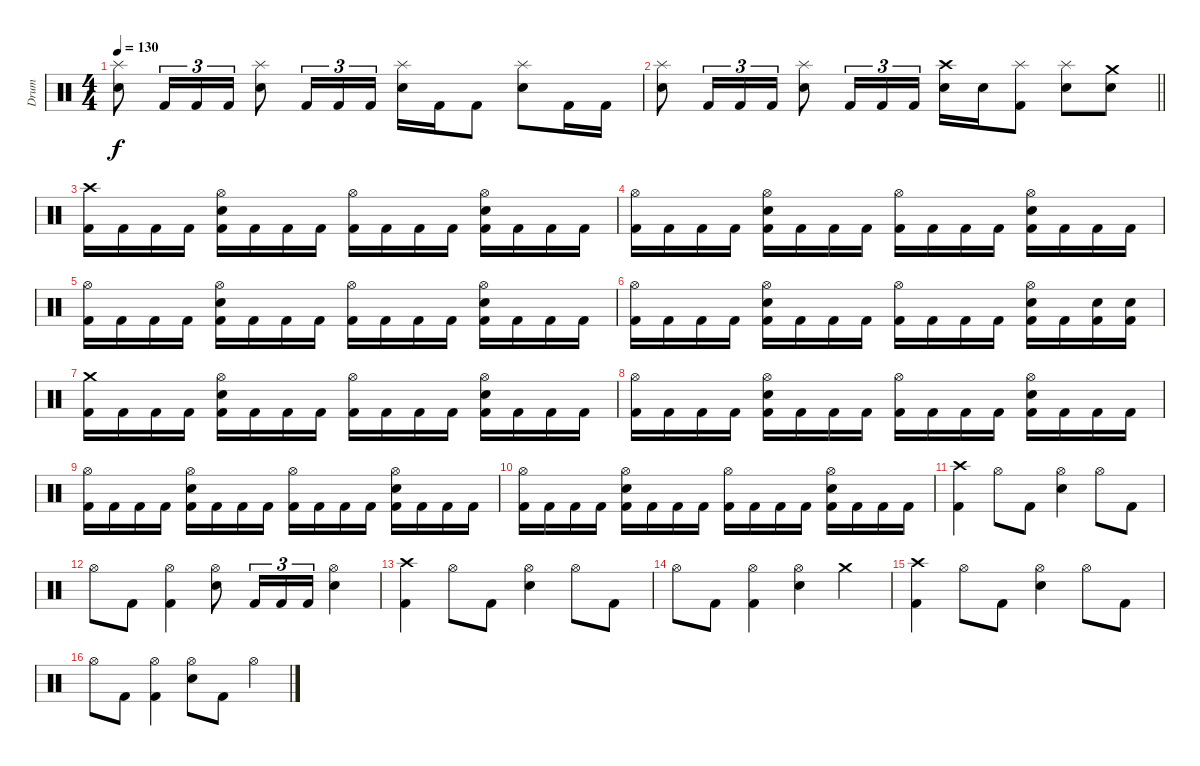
\track ("Drum" "Drum") {instrument percussion}
\staff {score}
\articulation defaults
\ts (4 4)
\tempo 130
\clef neutral
\ks c
("Electric Snare (hit)" "Splash (hit)").8{dy f} "Kick (hit) 2".16{tu (3 2)} "Kick (hit) 2".16{tu (3 2)} "Kick (hit) 2".16{tu (3 2)} ("Electric Snare (hit)" "Splash (hit)").8 "Kick (hit) 2".16{tu (3 2)} "Kick (hit) 2".16{tu (3 2)} "Kick (hit) 2".16{tu (3 2)} ("Electric Snare (hit)" "Splash (hit)").16 "Kick (hit) 2".16 "Kick (hit) 2".8 ("Electric Snare (hit)" "Splash (hit)").8 "Kick (hit) 2".16 "Kick (hit) 2".16 |
\barLineRight lightlight
("Electric Snare (hit)" "Splash (hit)").8 "Kick (hit) 2".16{tu (3 2)} "Kick (hit) 2".16{tu (3 2)} "Kick (hit) 2".16{tu (3 2)} ("Electric Snare (hit)" "Splash (hit)").8 "Kick (hit) 2".16{tu (3 2)} "Kick (hit) 2".16{tu (3 2)} "Kick (hit) 2".16{tu (3 2)} ("Electric Snare (hit)" "Crash high (hit)").16 "Electric Snare (hit)".16 ("Kick (hit) 2" "Splash (hit)").8 ("Electric Snare (hit)" "Splash (hit)").8 ("Electric Snare (hit)" "Crash medium (hit)").8 |
("Kick (hit) 2" "Crash high (hit)").16 "Kick (hit) 2".16 "Kick (hit) 2".16 "Kick (hit) 2".16 ("Kick (hit) 2" "Electric Snare (hit)" "Hi-Hat (open)").16 "Kick (hit) 2".16 "Kick (hit) 2".16 "Kick (hit) 2".16 ("Kick (hit) 2" "Hi-Hat (open)").16 "Kick (hit) 2".16 "Kick (hit) 2".16 "Kick (hit) 2".16 ("Kick (hit) 2" "Electric Snare (hit)" "Hi-Hat (open)").16 "Kick (hit) 2".16 "Kick (hit) 2".16 "Kick (hit) 2".16 |
("Kick (hit) 2" "Hi-Hat (open)").16 "Kick (hit) 2".16 "Kick (hit) 2".16 "Kick (hit) 2".16 ("Kick (hit) 2" "Electric Snare (hit)" "Hi-Hat (open)").16 "Kick (hit) 2".16 "Kick (hit) 2".16 "Kick (hit) 2".16 ("Kick (hit) 2" "Hi-Hat (open)").16 "Kick (hit) 2".16 "Kick (hit) 2".16 "Kick (hit) 2".16 ("Kick (hit) 2" "Electric Snare (hit)" "Hi-Hat (open)").16 "Kick (hit) 2".16 "Kick (hit) 2".16 "Kick (hit) 2".16 |
("Kick (hit) 2" "Hi-Hat (open)").16 "Kick (hit) 2".16 "Kick (hit) 2".16 "Kick (hit) 2".16 ("Kick (hit) 2" "Electric Snare (hit)" "Hi-Hat (open)").16 "Kick (hit) 2".16 "Kick (hit) 2".16 "Kick (hit) 2".16 ("Kick (hit) 2" "Hi-Hat (open)").16 "Kick (hit) 2".16 "Kick (hit) 2".16 "Kick (hit) 2".16 ("Kick (hit) 2" "Electric Snare (hit)" "Hi-Hat (open)").16 "Kick (hit) 2".16 "Kick (hit) 2".16 "Kick (hit) 2".16 |
("Kick (hit) 2" "Hi-Hat (open)").16 "Kick (hit) 2".16 "Kick (hit) 2".16 "Kick (hit) 2".16 ("Kick (hit) 2" "Electric Snare (hit)" "Hi-Hat (open)").16 "Kick (hit) 2".16 "Kick (hit) 2".16 "Kick (hit) 2".16 ("Kick (hit) 2" "Hi-Hat (open)").16 "Kick (hit) 2".16 "Kick (hit) 2".16 "Kick (hit) 2".16 ("Kick (hit) 2" "Electric Snare (hit)" "Hi-Hat (open)").16 "Kick (hit) 2".16 ("Kick (hit) 2" "Electric Snare (hit)").16 ("Kick (hit) 2" "Electric Snare (hit)").16 |
("Kick (hit) 2" "Crash medium (hit)").16 "Kick (hit) 2".16 "Kick (hit) 2".16 "Kick (hit) 2".16 ("Kick (hit) 2" "Electric Snare (hit)" "Hi-Hat (open)").16 "Kick (hit) 2".16 "Kick (hit) 2".16 "Kick (hit) 2".16 ("Kick (hit) 2" "Hi-Hat (open)").16 "Kick (hit) 2".16 "Kick (hit) 2".16 "Kick (hit) 2".16 ("Kick (hit) 2" "Electric Snare (hit)" "Hi-Hat (open)").16 "Kick (hit) 2".16 "Kick (hit) 2".16 "Kick (hit) 2".16 |
("Kick (hit) 2" "Hi-Hat (open)").16 "Kick (hit) 2".16 "Kick (hit) 2".16 "Kick (hit) 2".16 ("Kick (hit) 2" "Electric Snare (hit)" "Hi-Hat (open)").16 "Kick (hit) 2".16 "Kick (hit) 2".16 "Kick (hit) 2".16 ("Kick (hit) 2" "Hi-Hat (open)").16 "Kick (hit) 2".16 "Kick (hit) 2".16 "Kick (hit) 2".16 ("Kick (hit) 2" "Electric Snare (hit)" "Hi-Hat (open)").16 "Kick (hit) 2".16 "Kick (hit) 2".16 "Kick (hit) 2".16 |
("Kick (hit) 2" "Hi-Hat (open)").16 "Kick (hit) 2".16 "Kick (hit) 2".16 "Kick (hit) 2".16 ("Kick (hit) 2" "Electric Snare (hit)" "Hi-Hat (open)").16 "Kick (hit) 2".16 "Kick (hit) 2".16 "Kick (hit) 2".16 ("Kick (hit) 2" "Hi-Hat (open)").16 "Kick (hit) 2".16 "Kick (hit) 2".16 "Kick (hit) 2".16 ("Kick (hit) 2" "Electric Snare (hit)" "Hi-Hat (open)").16 "Kick (hit) 2".16 "Kick (hit) 2".16 "Kick (hit) 2".16 |
("Kick (hit) 2" "Hi-Hat (open)").16 "Kick (hit) 2".16 "Kick (hit) 2".16 "Kick (hit) 2".16 ("Kick (hit) 2" "Electric Snare (hit)" "Hi-Hat (open)").16 "Kick (hit) 2".16 "Kick (hit) 2".16 "Kick (hit) 2".16 ("Kick (hit) 2" "Hi-Hat (open)").16 "Kick (hit) 2".16 "Kick (hit) 2".16 "Kick (hit) 2".16 ("Kick (hit) 2" "Electric Snare (hit)" "Hi-Hat (open)").16 "Kick (hit) 2".16 "Kick (hit) 2".16 "Kick (hit) 2".16 |
("Kick (hit) 2" "Crash high (hit)").4 "Hi-Hat (open)".8 "Kick (hit) 2".8 ("Electric Snare (hit)" "Hi-Hat (open)").4 "Hi-Hat (open)".8 "Kick (hit) 2".8 |
"Hi-Hat (open)".8 "Kick (hit) 2".8 ("Kick (hit) 2" "Hi-Hat (open)").4 ("Electric Snare (hit)" "Hi-Hat (open)").8 "Kick (hit) 2".16{tu (3 2)} "Kick (hit) 2".16{tu (3 2)} "Kick (hit) 2".16{tu (3 2)} ("Electric Snare (hit)" "Hi-Hat (open)").4 |
("Kick (hit) 2" "Crash high (hit)").4 "Hi-Hat (open)".8 "Kick (hit) 2".8 ("Electric Snare (hit)" "Hi-Hat (open)").4 "Hi-Hat (open)".8 "Kick (hit) 2".8 |
"Hi-Hat (open)".8 "Kick (hit) 2".8 ("Kick (hit) 2" "Hi-Hat (open)").4 ("Electric Snare (hit)" "Hi-Hat (open)").4 "Crash medium (hit)".4 |
("Kick (hit) 2" "Crash high (hit)").4 "Hi-Hat (open)".8 "Kick (hit) 2".8 ("Electric Snare (hit)" "Hi-Hat (open)").4 "Hi-Hat (open)".8 "Kick (hit) 2".8 |
"Hi-Hat (open)".8 "Kick (hit) 2".8 ("Kick (hit) 2" "Hi-Hat (open)").4 ("Electric Snare (hit)" "Hi-Hat (open)").8 "Kick (hit) 2".8 "Hi-Hat (open)".4
